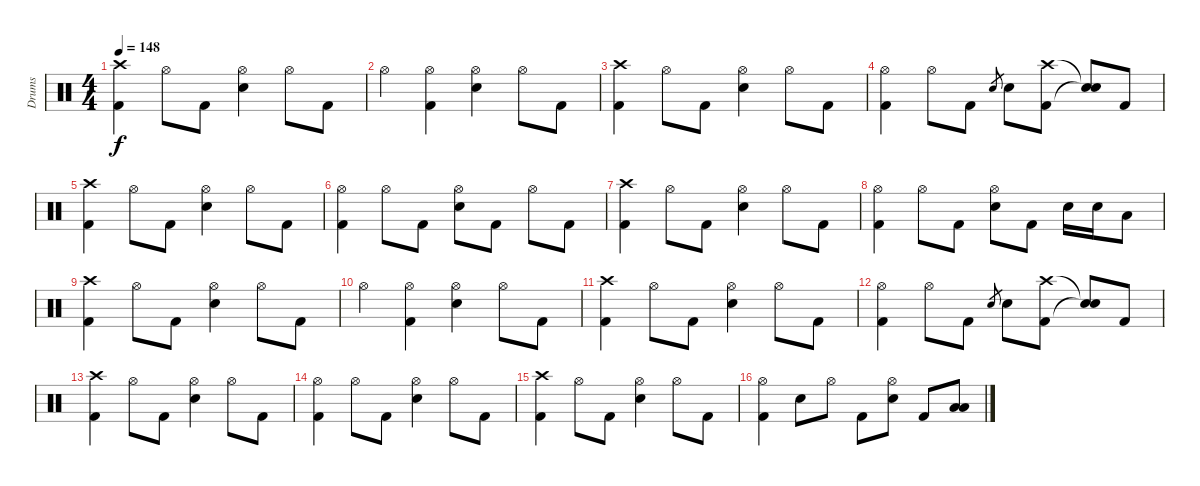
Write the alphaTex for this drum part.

\track ("Drums" "Drums") {instrument percussion}
\staff {score}
\articulation defaults
\ts (4 4)
\tempo 148
\clef neutral
\ks c
("Crash high (hit)" "Kick (hit) 2").4{dy f} "Hi-Hat (open)".8 "Kick (hit) 2".8 ("Hi-Hat (open)" "Electric Snare (hit)").4 "Hi-Hat (open)".8 "Kick (hit) 2".8 |
"Hi-Hat (open)".4 ("Hi-Hat (open)" "Kick (hit) 2").4 ("Hi-Hat (open)" "Electric Snare (hit)").4 "Hi-Hat (open)".8 "Kick (hit) 2".8 |
("Crash high (hit)" "Kick (hit) 2").4 "Hi-Hat (open)".8 "Kick (hit) 2".8 ("Hi-Hat (open)" "Electric Snare (hit)").4 "Hi-Hat (open)".8 "Kick (hit) 2".8 |
("Hi-Hat (open)" "Kick (hit) 2").4 "Hi-Hat (open)".8 "Kick (hit) 2".8 "Electric Snare (hit)".8{gr} "Electric Snare (hit)".8 ("Crash high (hit)" "Kick (hit) 2").8 ("Snare (hit)"{t} "Snare (hit)"{t}).8 "Kick (hit) 2".8 |
("Crash high (hit)" "Kick (hit) 2").4 "Hi-Hat (open)".8 "Kick (hit) 2".8 ("Hi-Hat (open)" "Electric Snare (hit)").4 "Hi-Hat (open)".8 "Kick (hit) 2".8 |
("Hi-Hat (open)" "Kick (hit) 2").4 "Hi-Hat (open)".8 "Kick (hit) 2".8 ("Hi-Hat (open)" "Electric Snare (hit)").8 "Kick (hit) 2".8 "Hi-Hat (open)".8 "Kick (hit) 2".8 |
("Crash high (hit)" "Kick (hit) 2").4 "Hi-Hat (open)".8 "Kick (hit) 2".8 ("Hi-Hat (open)" "Electric Snare (hit)").4 "Hi-Hat (open)".8 "Kick (hit) 2".8 |
("Hi-Hat (open)" "Kick (hit) 2").4 "Hi-Hat (open)".8 "Kick (hit) 2".8 ("Hi-Hat (open)" "Electric Snare (hit)").8 "Kick (hit) 2".8 "Electric Snare (hit)".16 "Electric Snare (hit)".16 "Low Tom (hit)".8 |
("Crash high (hit)" "Kick (hit) 2").4 "Hi-Hat (open)".8 "Kick (hit) 2".8 ("Hi-Hat (open)" "Electric Snare (hit)").4 "Hi-Hat (open)".8 "Kick (hit) 2".8 |
"Hi-Hat (open)".4 ("Hi-Hat (open)" "Kick (hit) 2").4 ("Hi-Hat (open)" "Electric Snare (hit)").4 "Hi-Hat (open)".8 "Kick (hit) 2".8 |
("Crash high (hit)" "Kick (hit) 2").4 "Hi-Hat (open)".8 "Kick (hit) 2".8 ("Hi-Hat (open)" "Electric Snare (hit)").4 "Hi-Hat (open)".8 "Kick (hit) 2".8 |
("Hi-Hat (open)" "Kick (hit) 2").4 "Hi-Hat (open)".8 "Kick (hit) 2".8 "Electric Snare (hit)".8{gr} "Electric Snare (hit)".8 ("Crash high (hit)" "Kick (hit) 2").8 ("Snare (hit)"{t} "Snare (hit)"{t}).8 "Kick (hit) 2".8 |
("Crash high (hit)" "Kick (hit) 2").4 "Hi-Hat (open)".8 "Kick (hit) 2".8 ("Hi-Hat (open)" "Electric Snare (hit)").4 "Hi-Hat (open)".8 "Kick (hit) 2".8 |
("Hi-Hat (open)" "Kick (hit) 2").4 "Hi-Hat (open)".8 "Kick (hit) 2".8 ("Hi-Hat (open)" "Electric Snare (hit)").4 "Hi-Hat (open)".8 "Kick (hit) 2".8 |
("Crash high (hit)" "Kick (hit) 2").4 "Hi-Hat (open)".8 "Kick (hit) 2".8 ("Hi-Hat (open)" "Electric Snare (hit)").4 "Hi-Hat (open)".8 "Kick (hit) 2".8 |
("Hi-Hat (open)" "Kick (hit) 2").4 "Electric Snare (hit)".8 "Hi-Hat (open)".8 "Kick (hit) 2".8 ("Hi-Hat (open)" "Electric Snare (hit)").8 "Kick (hit) 2".8 ("Low Floor Tom (hit)" "Low Tom (hit)").8
